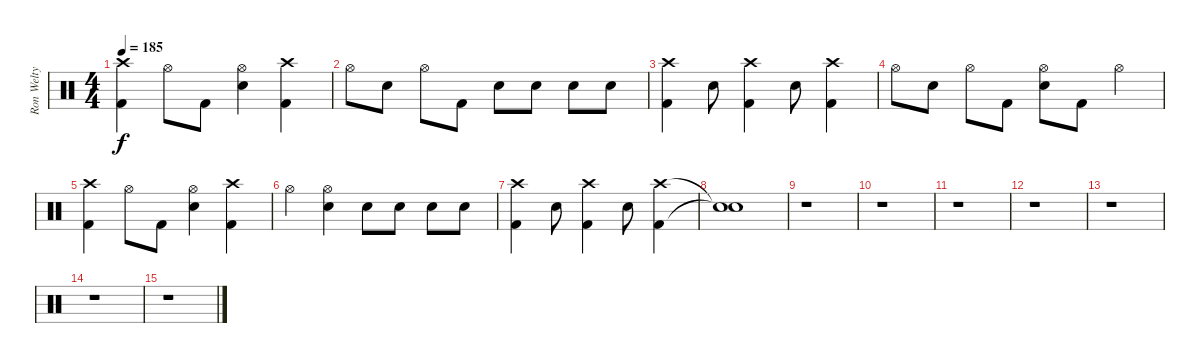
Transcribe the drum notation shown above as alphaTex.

\track ("Ron Welty" "Ron Welty") {instrument percussion}
\staff {score}
\articulation defaults
\ts (4 4)
\tempo 185
\clef neutral
\ks c
("Crash high (hit)" "Kick (hit) 2").4{dy f} "Hi-Hat (open)".8 "Kick (hit) 2".8 ("Hi-Hat (open)" "Electric Snare (hit)").4 ("Crash high (hit)" "Kick (hit) 2").4 |
"Hi-Hat (open)".8 "Electric Snare (hit)".8 "Hi-Hat (open)".8 "Kick (hit) 2".8 "Electric Snare (hit)".8 "Electric Snare (hit)".8 "Electric Snare (hit)".8 "Electric Snare (hit)".8 |
("Crash high (hit)" "Kick (hit) 2").4 "Electric Snare (hit)".8 ("Crash high (hit)" "Kick (hit) 2").4 "Electric Snare (hit)".8 ("Crash high (hit)" "Kick (hit) 2").4 |
"Hi-Hat (open)".8 "Electric Snare (hit)".8 "Hi-Hat (open)".8 "Kick (hit) 2".8 ("Hi-Hat (open)" "Electric Snare (hit)").8 "Kick (hit) 2".8 "Hi-Hat (open)".4 |
("Crash high (hit)" "Kick (hit) 2").4 "Hi-Hat (open)".8 "Kick (hit) 2".8 ("Hi-Hat (open)" "Electric Snare (hit)").4 ("Crash high (hit)" "Kick (hit) 2").4 |
"Hi-Hat (open)".4 ("Hi-Hat (open)" "Electric Snare (hit)").4 "Electric Snare (hit)".8 "Electric Snare (hit)".8 "Electric Snare (hit)".8 "Electric Snare (hit)".8 |
("Crash high (hit)" "Kick (hit) 2").4 "Electric Snare (hit)".8 ("Crash high (hit)" "Kick (hit) 2").4 "Electric Snare (hit)".8 ("Crash high (hit)" "Kick (hit) 2").4 |
("Snare (hit)"{t} "Snare (hit)"{t}).1 |
r.1 |
r.1 |
r.1 |
r.1 |
r.1 |
r.1 |
r.1
